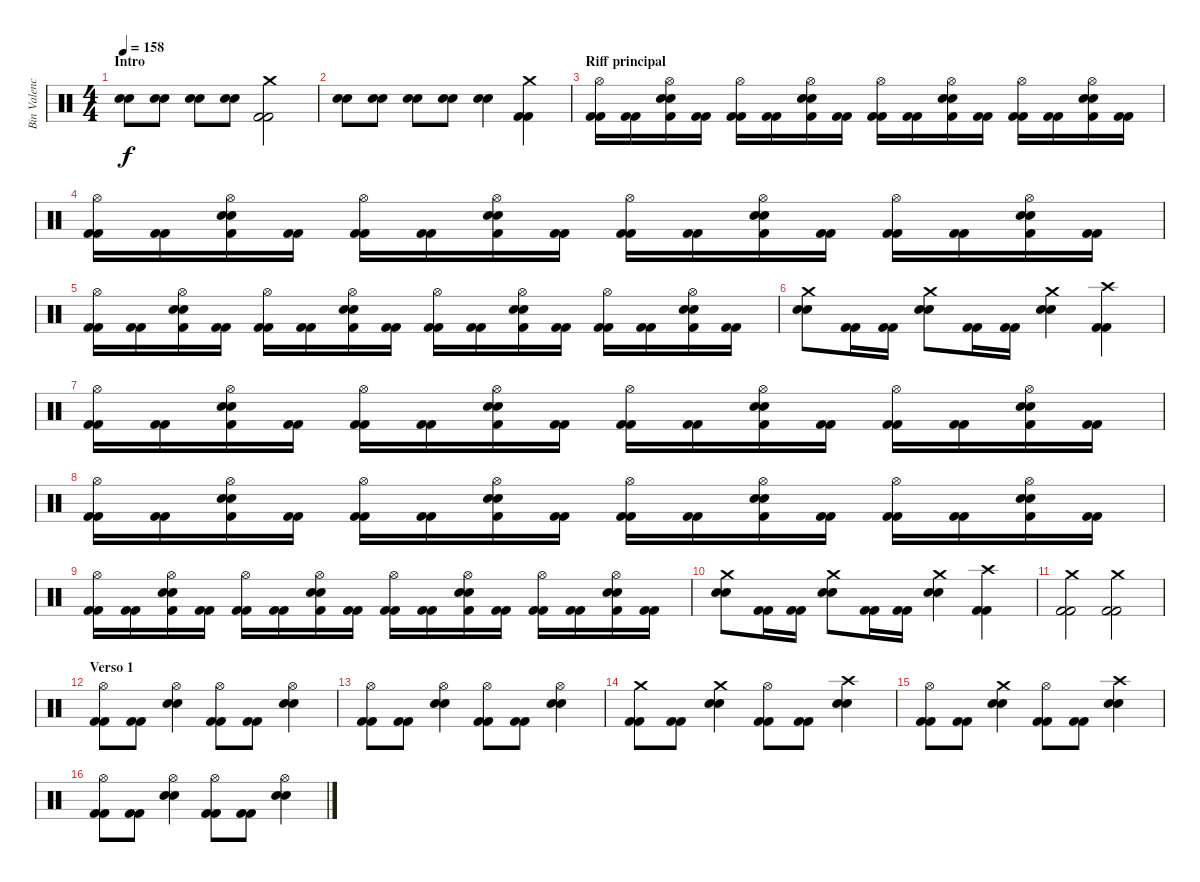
\track ("Bin Valencia (bateria)" "Bin Valenc") {instrument percussion}
\staff {score}
\articulation defaults
\ts (4 4)
\section ("" "Intro")
\tempo 158
\clef neutral
\ks c
("Electric Snare (hit)" "Electric Snare (hit)").8{dy f} ("Electric Snare (hit)" "Electric Snare (hit)").8 ("Electric Snare (hit)" "Electric Snare (hit)").8 ("Electric Snare (hit)" "Electric Snare (hit)").8 ("Crash medium (hit)" "Kick (hit) 2" "Kick (hit) 2").2 |
("Electric Snare (hit)" "Electric Snare (hit)").8 ("Electric Snare (hit)" "Electric Snare (hit)").8 ("Electric Snare (hit)" "Electric Snare (hit)").8 ("Electric Snare (hit)" "Electric Snare (hit)").8 ("Electric Snare (hit)" "Electric Snare (hit)").4 ("Crash medium (hit)" "Kick (hit) 2" "Kick (hit) 2").4 |
\section ("" "Riff principal")
("Hi-Hat (open)" "Kick (hit) 2" "Kick (hit) 2").16 ("Kick (hit) 2" "Kick (hit) 2").16 ("Hi-Hat (open)" "Snare (hit) 2" "Snare (hit) 2" "Kick (hit) 2").16 ("Kick (hit) 2" "Kick (hit) 2").16 ("Hi-Hat (open)" "Kick (hit) 2" "Kick (hit) 2").16 ("Kick (hit) 2" "Kick (hit) 2").16 ("Hi-Hat (open)" "Snare (hit) 2" "Snare (hit) 2" "Kick (hit) 2").16 ("Kick (hit) 2" "Kick (hit) 2").16 ("Hi-Hat (open)" "Kick (hit) 2" "Kick (hit) 2").16 ("Kick (hit) 2" "Kick (hit) 2").16 ("Hi-Hat (open)" "Snare (hit) 2" "Snare (hit) 2" "Kick (hit) 2").16 ("Kick (hit) 2" "Kick (hit) 2").16 ("Hi-Hat (open)" "Kick (hit) 2" "Kick (hit) 2").16 ("Kick (hit) 2" "Kick (hit) 2").16 ("Hi-Hat (open)" "Snare (hit) 2" "Snare (hit) 2" "Kick (hit) 2").16 ("Kick (hit) 2" "Kick (hit) 2").16 |
("Hi-Hat (open)" "Kick (hit) 2" "Kick (hit) 2").16 ("Kick (hit) 2" "Kick (hit) 2").16 ("Hi-Hat (open)" "Snare (hit) 2" "Snare (hit) 2" "Kick (hit) 2").16 ("Kick (hit) 2" "Kick (hit) 2").16 ("Hi-Hat (open)" "Kick (hit) 2" "Kick (hit) 2").16 ("Kick (hit) 2" "Kick (hit) 2").16 ("Hi-Hat (open)" "Snare (hit) 2" "Snare (hit) 2" "Kick (hit) 2").16 ("Kick (hit) 2" "Kick (hit) 2").16 ("Hi-Hat (open)" "Kick (hit) 2" "Kick (hit) 2").16 ("Kick (hit) 2" "Kick (hit) 2").16 ("Hi-Hat (open)" "Snare (hit) 2" "Snare (hit) 2" "Kick (hit) 2").16 ("Kick (hit) 2" "Kick (hit) 2").16 ("Hi-Hat (open)" "Kick (hit) 2" "Kick (hit) 2").16 ("Kick (hit) 2" "Kick (hit) 2").16 ("Hi-Hat (open)" "Snare (hit) 2" "Snare (hit) 2" "Kick (hit) 2").16 ("Kick (hit) 2" "Kick (hit) 2").16 |
("Hi-Hat (open)" "Kick (hit) 2" "Kick (hit) 2").16 ("Kick (hit) 2" "Kick (hit) 2").16 ("Hi-Hat (open)" "Snare (hit) 2" "Snare (hit) 2" "Kick (hit) 2").16 ("Kick (hit) 2" "Kick (hit) 2").16 ("Hi-Hat (open)" "Kick (hit) 2" "Kick (hit) 2").16 ("Kick (hit) 2" "Kick (hit) 2").16 ("Hi-Hat (open)" "Snare (hit) 2" "Snare (hit) 2" "Kick (hit) 2").16 ("Kick (hit) 2" "Kick (hit) 2").16 ("Hi-Hat (open)" "Kick (hit) 2" "Kick (hit) 2").16 ("Kick (hit) 2" "Kick (hit) 2").16 ("Hi-Hat (open)" "Snare (hit) 2" "Snare (hit) 2" "Kick (hit) 2").16 ("Kick (hit) 2" "Kick (hit) 2").16 ("Hi-Hat (open)" "Kick (hit) 2" "Kick (hit) 2").16 ("Kick (hit) 2" "Kick (hit) 2").16 ("Hi-Hat (open)" "Snare (hit) 2" "Snare (hit) 2" "Kick (hit) 2").16 ("Kick (hit) 2" "Kick (hit) 2").16 |
("Crash medium (hit)" "Snare (hit) 2" "Snare (hit) 2").8 ("Kick (hit) 2" "Kick (hit) 2").16 ("Kick (hit) 2" "Kick (hit) 2").16 ("Crash medium (hit)" "Snare (hit) 2" "Snare (hit) 2").8 ("Kick (hit) 2" "Kick (hit) 2").16 ("Kick (hit) 2" "Kick (hit) 2").16 ("Crash medium (hit)" "Snare (hit) 2" "Snare (hit) 2").4 ("Crash high (hit)" "Kick (hit) 2" "Kick (hit) 2").4 |
("Hi-Hat (open)" "Kick (hit) 2" "Kick (hit) 2").16 ("Kick (hit) 2" "Kick (hit) 2").16 ("Hi-Hat (open)" "Snare (hit) 2" "Snare (hit) 2" "Kick (hit) 2").16 ("Kick (hit) 2" "Kick (hit) 2").16 ("Hi-Hat (open)" "Kick (hit) 2" "Kick (hit) 2").16 ("Kick (hit) 2" "Kick (hit) 2").16 ("Hi-Hat (open)" "Snare (hit) 2" "Snare (hit) 2" "Kick (hit) 2").16 ("Kick (hit) 2" "Kick (hit) 2").16 ("Hi-Hat (open)" "Kick (hit) 2" "Kick (hit) 2").16 ("Kick (hit) 2" "Kick (hit) 2").16 ("Hi-Hat (open)" "Snare (hit) 2" "Snare (hit) 2" "Kick (hit) 2").16 ("Kick (hit) 2" "Kick (hit) 2").16 ("Hi-Hat (open)" "Kick (hit) 2" "Kick (hit) 2").16 ("Kick (hit) 2" "Kick (hit) 2").16 ("Hi-Hat (open)" "Snare (hit) 2" "Snare (hit) 2" "Kick (hit) 2").16 ("Kick (hit) 2" "Kick (hit) 2").16 |
("Hi-Hat (open)" "Kick (hit) 2" "Kick (hit) 2").16 ("Kick (hit) 2" "Kick (hit) 2").16 ("Hi-Hat (open)" "Snare (hit) 2" "Snare (hit) 2" "Kick (hit) 2").16 ("Kick (hit) 2" "Kick (hit) 2").16 ("Hi-Hat (open)" "Kick (hit) 2" "Kick (hit) 2").16 ("Kick (hit) 2" "Kick (hit) 2").16 ("Hi-Hat (open)" "Snare (hit) 2" "Snare (hit) 2" "Kick (hit) 2").16 ("Kick (hit) 2" "Kick (hit) 2").16 ("Hi-Hat (open)" "Kick (hit) 2" "Kick (hit) 2").16 ("Kick (hit) 2" "Kick (hit) 2").16 ("Hi-Hat (open)" "Snare (hit) 2" "Snare (hit) 2" "Kick (hit) 2").16 ("Kick (hit) 2" "Kick (hit) 2").16 ("Hi-Hat (open)" "Kick (hit) 2" "Kick (hit) 2").16 ("Kick (hit) 2" "Kick (hit) 2").16 ("Hi-Hat (open)" "Snare (hit) 2" "Snare (hit) 2" "Kick (hit) 2").16 ("Kick (hit) 2" "Kick (hit) 2").16 |
("Hi-Hat (open)" "Kick (hit) 2" "Kick (hit) 2").16 ("Kick (hit) 2" "Kick (hit) 2").16 ("Hi-Hat (open)" "Snare (hit) 2" "Snare (hit) 2" "Kick (hit) 2").16 ("Kick (hit) 2" "Kick (hit) 2").16 ("Hi-Hat (open)" "Kick (hit) 2" "Kick (hit) 2").16 ("Kick (hit) 2" "Kick (hit) 2").16 ("Hi-Hat (open)" "Snare (hit) 2" "Snare (hit) 2" "Kick (hit) 2").16 ("Kick (hit) 2" "Kick (hit) 2").16 ("Hi-Hat (open)" "Kick (hit) 2" "Kick (hit) 2").16 ("Kick (hit) 2" "Kick (hit) 2").16 ("Hi-Hat (open)" "Snare (hit) 2" "Snare (hit) 2" "Kick (hit) 2").16 ("Kick (hit) 2" "Kick (hit) 2").16 ("Hi-Hat (open)" "Kick (hit) 2" "Kick (hit) 2").16 ("Kick (hit) 2" "Kick (hit) 2").16 ("Hi-Hat (open)" "Snare (hit) 2" "Snare (hit) 2" "Kick (hit) 2").16 ("Kick (hit) 2" "Kick (hit) 2").16 |
("Crash medium (hit)" "Snare (hit) 2" "Snare (hit) 2").8 ("Kick (hit) 2" "Kick (hit) 2").16 ("Kick (hit) 2" "Kick (hit) 2").16 ("Crash medium (hit)" "Snare (hit) 2" "Snare (hit) 2").8 ("Kick (hit) 2" "Kick (hit) 2").16 ("Kick (hit) 2" "Kick (hit) 2").16 ("Crash medium (hit)" "Snare (hit) 2" "Snare (hit) 2").4 ("Crash high (hit)" "Kick (hit) 2" "Kick (hit) 2").4 |
("Crash medium (hit)" "Kick (hit) 2" "Kick (hit) 2").2 ("Crash medium (hit)" "Kick (hit) 2" "Kick (hit) 2").2 |
\section ("" "Verso 1")
("Hi-Hat (open)" "Kick (hit) 2" "Kick (hit) 2").8 ("Kick (hit) 2" "Kick (hit) 2").8 ("Hi-Hat (open)" "Snare (hit) 2" "Snare (hit) 2").4 ("Hi-Hat (open)" "Kick (hit) 2" "Kick (hit) 2").8 ("Kick (hit) 2" "Kick (hit) 2").8 ("Hi-Hat (open)" "Snare (hit) 2" "Snare (hit) 2").4 |
("Hi-Hat (open)" "Kick (hit) 2" "Kick (hit) 2").8 ("Kick (hit) 2" "Kick (hit) 2").8 ("Hi-Hat (open)" "Snare (hit) 2" "Snare (hit) 2").4 ("Hi-Hat (open)" "Kick (hit) 2" "Kick (hit) 2").8 ("Kick (hit) 2" "Kick (hit) 2").8 ("Hi-Hat (open)" "Snare (hit) 2" "Snare (hit) 2").4 |
("Crash medium (hit)" "Kick (hit) 2" "Kick (hit) 2").8 ("Kick (hit) 2" "Kick (hit) 2").8 ("Crash medium (hit)" "Snare (hit) 2" "Snare (hit) 2").4 ("Hi-Hat (open)" "Kick (hit) 2" "Kick (hit) 2").8 ("Kick (hit) 2" "Kick (hit) 2").8 ("Crash high (hit)" "Snare (hit) 2" "Snare (hit) 2").4 |
("Hi-Hat (open)" "Kick (hit) 2" "Kick (hit) 2").8 ("Kick (hit) 2" "Kick (hit) 2").8 ("Crash medium (hit)" "Snare (hit) 2" "Snare (hit) 2").4 ("Hi-Hat (open)" "Kick (hit) 2" "Kick (hit) 2").8 ("Kick (hit) 2" "Kick (hit) 2").8 ("Crash high (hit)" "Snare (hit) 2" "Snare (hit) 2").4 |
("Hi-Hat (open)" "Kick (hit) 2" "Kick (hit) 2").8 ("Kick (hit) 2" "Kick (hit) 2").8 ("Hi-Hat (open)" "Snare (hit) 2" "Snare (hit) 2").4 ("Hi-Hat (open)" "Kick (hit) 2" "Kick (hit) 2").8 ("Kick (hit) 2" "Kick (hit) 2").8 ("Hi-Hat (open)" "Snare (hit) 2" "Snare (hit) 2").4
